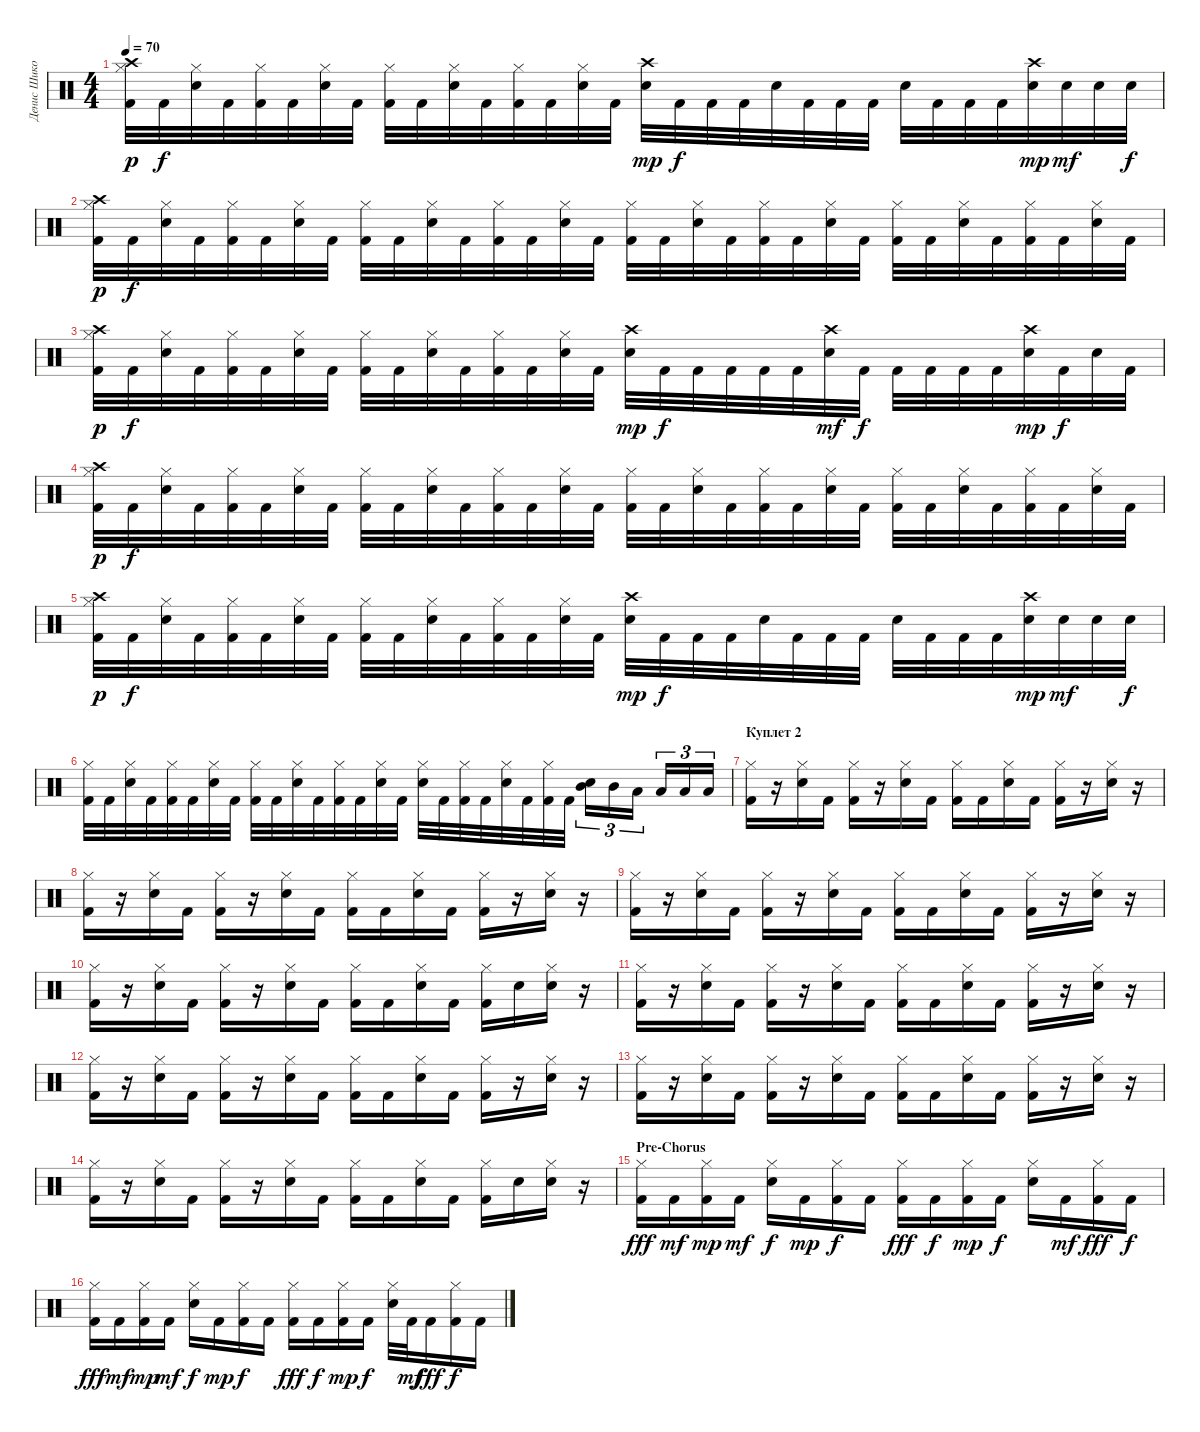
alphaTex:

\track ("Денис Шиков" "Денис Шико") {instrument percussion}
\staff {score}
\articulation defaults
\ts (4 4)
\tempo 70
\clef neutral
\ks c
("Crash high (hit)" "Hi-Hat (closed)" "Kick (hit) 2").32{dy p} "Kick (hit) 2".32{dy f} ("Hi-Hat (closed)" "Electric Snare (hit)").32 "Kick (hit) 2".32 ("Hi-Hat (closed)" "Kick (hit) 2").32 "Kick (hit) 2".32 ("Hi-Hat (closed)" "Electric Snare (hit)").32 "Kick (hit) 2".32 ("Hi-Hat (closed)" "Kick (hit) 2").32 "Kick (hit) 2".32 ("Hi-Hat (closed)" "Electric Snare (hit)").32 "Kick (hit) 2".32 ("Hi-Hat (closed)" "Kick (hit) 2").32 "Kick (hit) 2".32 ("Hi-Hat (closed)" "Electric Snare (hit)").32 "Kick (hit) 2".32 ("Crash high (hit)" "Electric Snare (hit)").32{dy mp} "Kick (hit) 2".32{dy f} "Kick (hit) 2".32 "Kick (hit) 2".32 "Electric Snare (hit)".32 "Kick (hit) 2".32 "Kick (hit) 2".32 "Kick (hit) 2".32 "Electric Snare (hit)".32 "Kick (hit) 2".32 "Kick (hit) 2".32 "Kick (hit) 2".32 ("Crash high (hit)" "Electric Snare (hit)").32{dy mp} "Electric Snare (hit)".32{dy mf} "Electric Snare (hit)".32 "Electric Snare (hit)".32{dy f} |
("Crash high (hit)" "Hi-Hat (closed)" "Kick (hit) 2").32{dy p} "Kick (hit) 2".32{dy f} ("Hi-Hat (closed)" "Electric Snare (hit)").32 "Kick (hit) 2".32 ("Hi-Hat (closed)" "Kick (hit) 2").32 "Kick (hit) 2".32 ("Hi-Hat (closed)" "Electric Snare (hit)").32 "Kick (hit) 2".32 ("Hi-Hat (closed)" "Kick (hit) 2").32 "Kick (hit) 2".32 ("Hi-Hat (closed)" "Electric Snare (hit)").32 "Kick (hit) 2".32 ("Hi-Hat (closed)" "Kick (hit) 2").32 "Kick (hit) 2".32 ("Hi-Hat (closed)" "Electric Snare (hit)").32 "Kick (hit) 2".32 ("Hi-Hat (closed)" "Kick (hit) 2").32 "Kick (hit) 2".32 ("Hi-Hat (closed)" "Electric Snare (hit)").32 "Kick (hit) 2".32 ("Hi-Hat (closed)" "Kick (hit) 2").32 "Kick (hit) 2".32 ("Hi-Hat (closed)" "Electric Snare (hit)").32 "Kick (hit) 2".32 ("Hi-Hat (closed)" "Kick (hit) 2").32 "Kick (hit) 2".32 ("Hi-Hat (closed)" "Electric Snare (hit)").32 "Kick (hit) 2".32 ("Hi-Hat (closed)" "Kick (hit) 2").32 "Kick (hit) 2".32 ("Hi-Hat (closed)" "Electric Snare (hit)").32 "Kick (hit) 2".32 |
("Crash high (hit)" "Hi-Hat (closed)" "Kick (hit) 2").32{dy p} "Kick (hit) 2".32{dy f} ("Hi-Hat (closed)" "Electric Snare (hit)").32 "Kick (hit) 2".32 ("Hi-Hat (closed)" "Kick (hit) 2").32 "Kick (hit) 2".32 ("Hi-Hat (closed)" "Electric Snare (hit)").32 "Kick (hit) 2".32 ("Hi-Hat (closed)" "Kick (hit) 2").32 "Kick (hit) 2".32 ("Hi-Hat (closed)" "Electric Snare (hit)").32 "Kick (hit) 2".32 ("Hi-Hat (closed)" "Kick (hit) 2").32 "Kick (hit) 2".32 ("Hi-Hat (closed)" "Electric Snare (hit)").32 "Kick (hit) 2".32 ("Crash high (hit)" "Electric Snare (hit)").32{dy mp} "Kick (hit) 2".32{dy f} "Kick (hit) 2".32 "Kick (hit) 2".32 "Kick (hit) 2".32 "Kick (hit) 2".32 ("Crash high (hit)" "Electric Snare (hit)").32{dy mf} "Kick (hit) 2".32{dy f} "Kick (hit) 2".32 "Kick (hit) 2".32 "Kick (hit) 2".32 "Kick (hit) 2".32 ("Crash high (hit)" "Electric Snare (hit)").32{dy mp} "Kick (hit) 2".32{dy f} "Electric Snare (hit)".32 "Kick (hit) 2".32 |
("Crash high (hit)" "Hi-Hat (closed)" "Kick (hit) 2").32{dy p} "Kick (hit) 2".32{dy f} ("Hi-Hat (closed)" "Electric Snare (hit)").32 "Kick (hit) 2".32 ("Hi-Hat (closed)" "Kick (hit) 2").32 "Kick (hit) 2".32 ("Hi-Hat (closed)" "Electric Snare (hit)").32 "Kick (hit) 2".32 ("Hi-Hat (closed)" "Kick (hit) 2").32 "Kick (hit) 2".32 ("Hi-Hat (closed)" "Electric Snare (hit)").32 "Kick (hit) 2".32 ("Hi-Hat (closed)" "Kick (hit) 2").32 "Kick (hit) 2".32 ("Hi-Hat (closed)" "Electric Snare (hit)").32 "Kick (hit) 2".32 ("Hi-Hat (closed)" "Kick (hit) 2").32 "Kick (hit) 2".32 ("Hi-Hat (closed)" "Electric Snare (hit)").32 "Kick (hit) 2".32 ("Hi-Hat (closed)" "Kick (hit) 2").32 "Kick (hit) 2".32 ("Hi-Hat (closed)" "Electric Snare (hit)").32 "Kick (hit) 2".32 ("Hi-Hat (closed)" "Kick (hit) 2").32 "Kick (hit) 2".32 ("Hi-Hat (closed)" "Electric Snare (hit)").32 "Kick (hit) 2".32 ("Hi-Hat (closed)" "Kick (hit) 2").32 "Kick (hit) 2".32 ("Hi-Hat (closed)" "Electric Snare (hit)").32 "Kick (hit) 2".32 |
("Crash high (hit)" "Hi-Hat (closed)" "Kick (hit) 2").32{dy p} "Kick (hit) 2".32{dy f} ("Hi-Hat (closed)" "Electric Snare (hit)").32 "Kick (hit) 2".32 ("Hi-Hat (closed)" "Kick (hit) 2").32 "Kick (hit) 2".32 ("Hi-Hat (closed)" "Electric Snare (hit)").32 "Kick (hit) 2".32 ("Hi-Hat (closed)" "Kick (hit) 2").32 "Kick (hit) 2".32 ("Hi-Hat (closed)" "Electric Snare (hit)").32 "Kick (hit) 2".32 ("Hi-Hat (closed)" "Kick (hit) 2").32 "Kick (hit) 2".32 ("Hi-Hat (closed)" "Electric Snare (hit)").32 "Kick (hit) 2".32 ("Crash high (hit)" "Electric Snare (hit)").32{dy mp} "Kick (hit) 2".32{dy f} "Kick (hit) 2".32 "Kick (hit) 2".32 "Electric Snare (hit)".32 "Kick (hit) 2".32 "Kick (hit) 2".32 "Kick (hit) 2".32 "Electric Snare (hit)".32 "Kick (hit) 2".32 "Kick (hit) 2".32 "Kick (hit) 2".32 ("Crash high (hit)" "Electric Snare (hit)").32{dy mp} "Electric Snare (hit)".32{dy mf} "Electric Snare (hit)".32 "Electric Snare (hit)".32{dy f} |
("Hi-Hat (closed)" "Kick (hit) 2").32 "Kick (hit) 2".32 ("Hi-Hat (closed)" "Electric Snare (hit)").32 "Kick (hit) 2".32 ("Hi-Hat (closed)" "Kick (hit) 2").32 "Kick (hit) 2".32 ("Hi-Hat (closed)" "Electric Snare (hit)").32 "Kick (hit) 2".32 ("Hi-Hat (closed)" "Kick (hit) 2").32 "Kick (hit) 2".32 ("Hi-Hat (closed)" "Electric Snare (hit)").32 "Kick (hit) 2".32 ("Hi-Hat (closed)" "Kick (hit) 2").32 "Kick (hit) 2".32 ("Hi-Hat (closed)" "Electric Snare (hit)").32 "Kick (hit) 2".32 ("Hi-Hat (closed)" "Electric Snare (hit)").32 "Kick (hit) 2".32 ("Hi-Hat (closed)" "Kick (hit) 2").32 "Kick (hit) 2".32 ("Hi-Hat (closed)" "Electric Snare (hit)").32 "Kick (hit) 2".32 ("Hi-Hat (closed)" "Kick (hit) 2").32 "Kick (hit) 2".32 ("Electric Snare (hit)" "Mid Tom (hit)").16{tu (3 2)} "Mid Tom (hit)".16{tu (3 2)} "Low Tom (hit)".16{tu (3 2)} "Low Tom (hit)".16{tu (3 2)} "Low Floor Tom (hit)".16{tu (3 2)} "Low Floor Tom (hit)".16{tu (3 2)} |
\section ("" "Куплет 2")
("Hi-Hat (closed)" "Kick (hit) 2").16 r.16 ("Hi-Hat (closed)" "Electric Snare (hit)").16 "Kick (hit) 2".16 ("Hi-Hat (closed)" "Kick (hit) 2").16 r.16 ("Hi-Hat (closed)" "Electric Snare (hit)").16 "Kick (hit) 2".16 ("Hi-Hat (closed)" "Kick (hit) 2").16 "Kick (hit) 2".16 ("Hi-Hat (closed)" "Electric Snare (hit)").16 "Kick (hit) 2".16 ("Hi-Hat (closed)" "Kick (hit) 2").16 r.16 ("Hi-Hat (closed)" "Electric Snare (hit)").16 r.16 |
("Hi-Hat (closed)" "Kick (hit) 2").16 r.16 ("Hi-Hat (closed)" "Electric Snare (hit)").16 "Kick (hit) 2".16 ("Hi-Hat (closed)" "Kick (hit) 2").16 r.16 ("Hi-Hat (closed)" "Electric Snare (hit)").16 "Kick (hit) 2".16 ("Hi-Hat (closed)" "Kick (hit) 2").16 "Kick (hit) 2".16 ("Hi-Hat (closed)" "Electric Snare (hit)").16 "Kick (hit) 2".16 ("Hi-Hat (closed)" "Kick (hit) 2").16 r.16 ("Hi-Hat (closed)" "Electric Snare (hit)").16 r.16 |
("Hi-Hat (closed)" "Kick (hit) 2").16 r.16 ("Hi-Hat (closed)" "Electric Snare (hit)").16 "Kick (hit) 2".16 ("Hi-Hat (closed)" "Kick (hit) 2").16 r.16 ("Hi-Hat (closed)" "Electric Snare (hit)").16 "Kick (hit) 2".16 ("Hi-Hat (closed)" "Kick (hit) 2").16 "Kick (hit) 2".16 ("Hi-Hat (closed)" "Electric Snare (hit)").16 "Kick (hit) 2".16 ("Hi-Hat (closed)" "Kick (hit) 2").16 r.16 ("Hi-Hat (closed)" "Electric Snare (hit)").16 r.16 |
("Hi-Hat (closed)" "Kick (hit) 2").16 r.16 ("Hi-Hat (closed)" "Electric Snare (hit)").16 "Kick (hit) 2".16 ("Hi-Hat (closed)" "Kick (hit) 2").16 r.16 ("Hi-Hat (closed)" "Electric Snare (hit)").16 "Kick (hit) 2".16 ("Hi-Hat (closed)" "Kick (hit) 2").16 "Kick (hit) 2".16 ("Hi-Hat (closed)" "Electric Snare (hit)").16 "Kick (hit) 2".16 ("Hi-Hat (closed)" "Kick (hit) 2").16 "Electric Snare (hit)".16 ("Hi-Hat (closed)" "Electric Snare (hit)").16 r.16 |
("Hi-Hat (closed)" "Kick (hit) 2").16 r.16 ("Hi-Hat (closed)" "Electric Snare (hit)").16 "Kick (hit) 2".16 ("Hi-Hat (closed)" "Kick (hit) 2").16 r.16 ("Hi-Hat (closed)" "Electric Snare (hit)").16 "Kick (hit) 2".16 ("Hi-Hat (closed)" "Kick (hit) 2").16 "Kick (hit) 2".16 ("Hi-Hat (closed)" "Electric Snare (hit)").16 "Kick (hit) 2".16 ("Hi-Hat (closed)" "Kick (hit) 2").16 r.16 ("Hi-Hat (closed)" "Electric Snare (hit)").16 r.16 |
("Hi-Hat (closed)" "Kick (hit) 2").16 r.16 ("Hi-Hat (closed)" "Electric Snare (hit)").16 "Kick (hit) 2".16 ("Hi-Hat (closed)" "Kick (hit) 2").16 r.16 ("Hi-Hat (closed)" "Electric Snare (hit)").16 "Kick (hit) 2".16 ("Hi-Hat (closed)" "Kick (hit) 2").16 "Kick (hit) 2".16 ("Hi-Hat (closed)" "Electric Snare (hit)").16 "Kick (hit) 2".16 ("Hi-Hat (closed)" "Kick (hit) 2").16 r.16 ("Hi-Hat (closed)" "Electric Snare (hit)").16 r.16 |
("Hi-Hat (closed)" "Kick (hit) 2").16 r.16 ("Hi-Hat (closed)" "Electric Snare (hit)").16 "Kick (hit) 2".16 ("Hi-Hat (closed)" "Kick (hit) 2").16 r.16 ("Hi-Hat (closed)" "Electric Snare (hit)").16 "Kick (hit) 2".16 ("Hi-Hat (closed)" "Kick (hit) 2").16 "Kick (hit) 2".16 ("Hi-Hat (closed)" "Electric Snare (hit)").16 "Kick (hit) 2".16 ("Hi-Hat (closed)" "Kick (hit) 2").16 r.16 ("Hi-Hat (closed)" "Electric Snare (hit)").16 r.16 |
("Hi-Hat (closed)" "Kick (hit) 2").16 r.16 ("Hi-Hat (closed)" "Electric Snare (hit)").16 "Kick (hit) 2".16 ("Hi-Hat (closed)" "Kick (hit) 2").16 r.16 ("Hi-Hat (closed)" "Electric Snare (hit)").16 "Kick (hit) 2".16 ("Hi-Hat (closed)" "Kick (hit) 2").16 "Kick (hit) 2".16 ("Hi-Hat (closed)" "Electric Snare (hit)").16 "Kick (hit) 2".16 ("Hi-Hat (closed)" "Kick (hit) 2").16 "Electric Snare (hit)".16 ("Hi-Hat (closed)" "Electric Snare (hit)").16 r.16 |
\section ("" "Pre-Chorus")
("Hi-Hat (closed)" "Kick (hit) 2").16{dy fff} "Kick (hit) 2".16{dy mf} ("Hi-Hat (closed)" "Kick (hit) 2").16{dy mp} "Kick (hit) 2".16{dy mf} ("Hi-Hat (closed)" "Electric Snare (hit)").16{dy f} "Kick (hit) 2".16{dy mp} ("Hi-Hat (closed)" "Kick (hit) 2").16{dy f} "Kick (hit) 2".16 ("Hi-Hat (closed)" "Kick (hit) 2").16{dy fff} "Kick (hit) 2".16{dy f} ("Hi-Hat (closed)" "Kick (hit) 2").16{dy mp} "Kick (hit) 2".16{dy f} ("Hi-Hat (closed)" "Electric Snare (hit)").16 "Kick (hit) 2".16{dy mf} ("Hi-Hat (closed)" "Kick (hit) 2").16{dy fff} "Kick (hit) 2".16{dy f} |
("Hi-Hat (closed)" "Kick (hit) 2").16{dy fff} "Kick (hit) 2".16{dy mf} ("Hi-Hat (closed)" "Kick (hit) 2").16{dy mp} "Kick (hit) 2".16{dy mf} ("Hi-Hat (closed)" "Electric Snare (hit)").16{dy f} "Kick (hit) 2".16{dy mp} ("Hi-Hat (closed)" "Kick (hit) 2").16{dy f} "Kick (hit) 2".16 ("Hi-Hat (closed)" "Kick (hit) 2").16{dy fff} "Kick (hit) 2".16{dy f} ("Hi-Hat (closed)" "Kick (hit) 2").16{dy mp} "Kick (hit) 2".16{dy f} ("Hi-Hat (closed)" "Electric Snare (hit)").32 "Kick (hit) 2".32{dy mf} "Kick (hit) 2".16{dy fff} ("Hi-Hat (closed)" "Kick (hit) 2").16{dy f} "Kick (hit) 2".16
